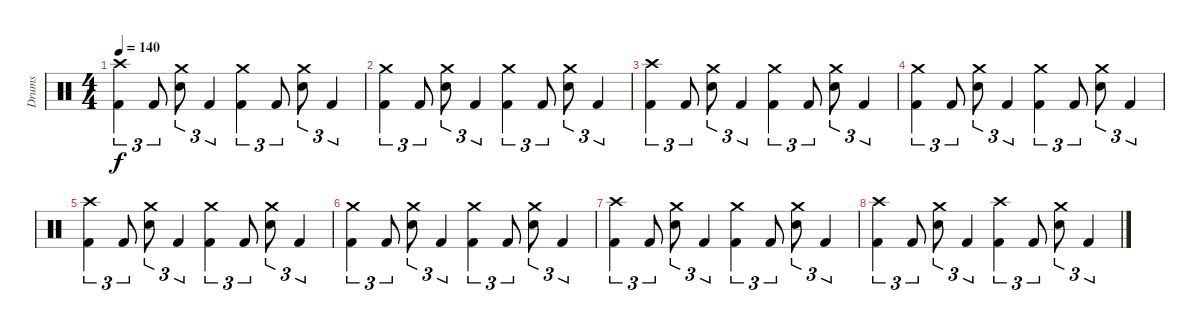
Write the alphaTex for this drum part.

\track ("Drums" "Drums") {instrument percussion}
\staff {score}
\articulation defaults
\ts (4 4)
\tempo 140
\clef neutral
\ks c
("Kick (hit) 2" "Crash high (hit)").4{tu (3 2) dy f} "Kick (hit) 2".8{tu (3 2)} ("Electric Snare (hit)" "Crash medium (hit)").8{tu (3 2)} "Kick (hit) 2".4{tu (3 2)} ("Kick (hit) 2" "Crash medium (hit)").4{tu (3 2)} "Kick (hit) 2".8{tu (3 2)} ("Electric Snare (hit)" "Crash medium (hit)").8{tu (3 2)} "Kick (hit) 2".4{tu (3 2)} |
("Kick (hit) 2" "Crash medium (hit)").4{tu (3 2)} "Kick (hit) 2".8{tu (3 2)} ("Electric Snare (hit)" "Crash medium (hit)").8{tu (3 2)} "Kick (hit) 2".4{tu (3 2)} ("Kick (hit) 2" "Crash medium (hit)").4{tu (3 2)} "Kick (hit) 2".8{tu (3 2)} ("Electric Snare (hit)" "Crash medium (hit)").8{tu (3 2)} "Kick (hit) 2".4{tu (3 2)} |
("Kick (hit) 2" "Crash high (hit)").4{tu (3 2)} "Kick (hit) 2".8{tu (3 2)} ("Electric Snare (hit)" "Crash medium (hit)").8{tu (3 2)} "Kick (hit) 2".4{tu (3 2)} ("Kick (hit) 2" "Crash medium (hit)").4{tu (3 2)} "Kick (hit) 2".8{tu (3 2)} ("Electric Snare (hit)" "Crash medium (hit)").8{tu (3 2)} "Kick (hit) 2".4{tu (3 2)} |
("Kick (hit) 2" "Crash medium (hit)").4{tu (3 2)} "Kick (hit) 2".8{tu (3 2)} ("Electric Snare (hit)" "Crash medium (hit)").8{tu (3 2)} "Kick (hit) 2".4{tu (3 2)} ("Kick (hit) 2" "Crash medium (hit)").4{tu (3 2)} "Kick (hit) 2".8{tu (3 2)} ("Electric Snare (hit)" "Crash medium (hit)").8{tu (3 2)} "Kick (hit) 2".4{tu (3 2)} |
("Kick (hit) 2" "Crash high (hit)").4{tu (3 2)} "Kick (hit) 2".8{tu (3 2)} ("Electric Snare (hit)" "Crash medium (hit)").8{tu (3 2)} "Kick (hit) 2".4{tu (3 2)} ("Kick (hit) 2" "Crash medium (hit)").4{tu (3 2)} "Kick (hit) 2".8{tu (3 2)} ("Electric Snare (hit)" "Crash medium (hit)").8{tu (3 2)} "Kick (hit) 2".4{tu (3 2)} |
("Kick (hit) 2" "Crash medium (hit)").4{tu (3 2)} "Kick (hit) 2".8{tu (3 2)} ("Electric Snare (hit)" "Crash medium (hit)").8{tu (3 2)} "Kick (hit) 2".4{tu (3 2)} ("Kick (hit) 2" "Crash medium (hit)").4{tu (3 2)} "Kick (hit) 2".8{tu (3 2)} ("Electric Snare (hit)" "Crash medium (hit)").8{tu (3 2)} "Kick (hit) 2".4{tu (3 2)} |
("Kick (hit) 2" "Crash high (hit)").4{tu (3 2)} "Kick (hit) 2".8{tu (3 2)} ("Electric Snare (hit)" "Crash medium (hit)").8{tu (3 2)} "Kick (hit) 2".4{tu (3 2)} ("Kick (hit) 2" "Crash medium (hit)").4{tu (3 2)} "Kick (hit) 2".8{tu (3 2)} ("Electric Snare (hit)" "Crash medium (hit)").8{tu (3 2)} "Kick (hit) 2".4{tu (3 2)} |
("Kick (hit) 2" "Crash high (hit)").4{tu (3 2)} "Kick (hit) 2".8{tu (3 2)} ("Electric Snare (hit)" "Crash medium (hit)").8{tu (3 2)} "Kick (hit) 2".4{tu (3 2)} ("Kick (hit) 2" "Crash high (hit)").4{tu (3 2)} "Kick (hit) 2".8{tu (3 2)} ("Electric Snare (hit)" "Crash medium (hit)").8{tu (3 2)} "Kick (hit) 2".4{tu (3 2)}
